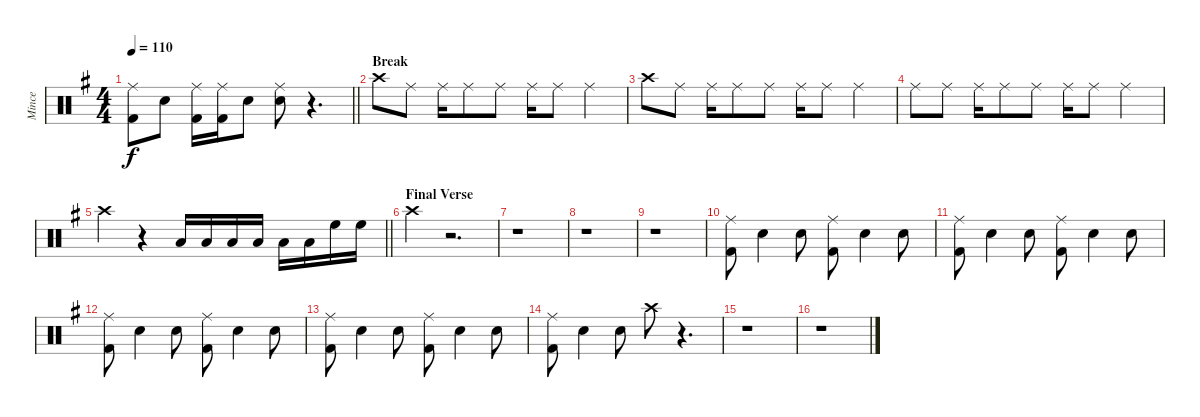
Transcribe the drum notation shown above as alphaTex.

\track ("Mince" "Mince") {instrument percussion}
\staff {score}
\articulation defaults
\ts (4 4)
\tempo 110
\clef neutral
\barLineRight lightlight
\ks g
("Kick (hit) 2" "Ride (middle)").8{dy f} "Snare (hit) 2".8 ("Kick (hit) 2" "Ride (middle)").16 ("Kick (hit) 2" "Ride (middle)").16 "Snare (hit) 2".8 ("Ride (middle)" "Snare (hit) 2").8 r.4{d} |
\section ("" "Break")
"Crash high (hit)".8 "Ride (middle)".8 "Ride (middle)".16 "Ride (middle)".8 "Ride (middle)".8 "Ride (middle)".16 "Ride (middle)".8 "Ride (middle)".4 |
"Crash high (hit)".8 "Ride (middle)".8 "Ride (middle)".16 "Ride (middle)".8 "Ride (middle)".8 "Ride (middle)".16 "Ride (middle)".8 "Ride (middle)".4 |
"Ride (middle)".8 "Ride (middle)".8 "Ride (middle)".16 "Ride (middle)".8 "Ride (middle)".8 "Ride (middle)".16 "Ride (middle)".8 "Ride (middle)".4 |
\barLineRight lightlight "Crash high (hit)".4
r.4 "Low Floor Tom (hit)".16 "Low Floor Tom (hit)".16 "Low Floor Tom (hit)".16 "Low Floor Tom (hit)".16 "Low Tom (hit)".16 "Low Tom (hit)".16 "High Floor Tom (hit)".16 "High Floor Tom (hit)".16 |
\section ("" "Final Verse")
"Crash high (hit)".4 r.2{d} |
r.1 |
r.1 |
r.1 |
("Kick (hit) 2" "Ride (middle)").8 "Snare (hit) 2".4 "Snare (hit) 2".8 ("Kick (hit) 2" "Ride (middle)").8 "Snare (hit) 2".4 "Snare (hit) 2".8 |
("Kick (hit) 2" "Ride (middle)").8 "Snare (hit) 2".4 "Snare (hit) 2".8 ("Kick (hit) 2" "Ride (middle)").8 "Snare (hit) 2".4 "Snare (hit) 2".8 |
("Kick (hit) 2" "Ride (middle)").8 "Snare (hit) 2".4 "Snare (hit) 2".8 ("Kick (hit) 2" "Ride (middle)").8 "Snare (hit) 2".4 "Snare (hit) 2".8 |
("Kick (hit) 2" "Ride (middle)").8 "Snare (hit) 2".4 "Snare (hit) 2".8 ("Kick (hit) 2" "Ride (middle)").8 "Snare (hit) 2".4 "Snare (hit) 2".8 |
("Kick (hit) 2" "Ride (middle)").8 "Snare (hit) 2".4 "Snare (hit) 2".8 "Crash high (hit)".8 r.4{d} |
r.1 |
r.1
